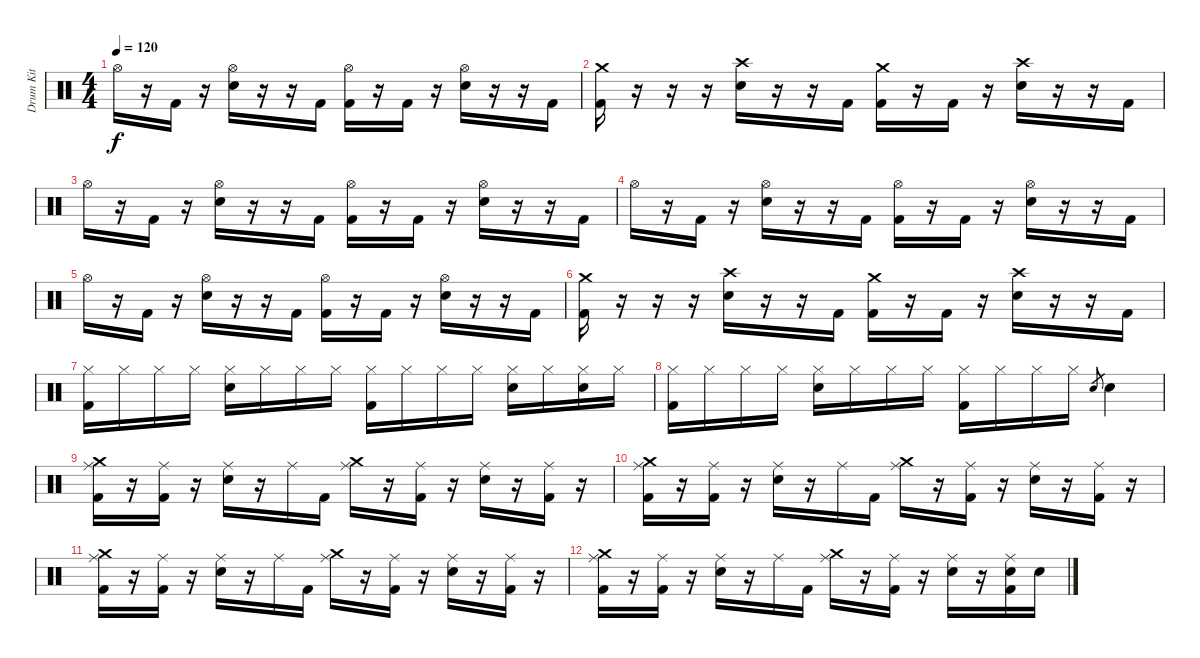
\track ("Drum Kit" "Drum Kit") {instrument percussion}
\staff {score}
\articulation defaults
\ts (4 4)
\tempo 120
\clef neutral
\ks c "Hi-Hat (open)".16{dy f}
r.16 "Kick (hit) 2".16 r.16 ("Hi-Hat (open)" "Snare (hit) 2").16 r.16 r.16 "Kick (hit) 2".16 ("Hi-Hat (open)" "Kick (hit) 2").16 r.16 "Kick (hit) 2".16 r.16 ("Hi-Hat (open)" "Snare (hit) 2").16 r.16 r.16 "Kick (hit) 2".16 |
("Crash medium (hit)" "Kick (hit) 2").16 r.16 r.16 r.16 ("Crash high (hit)" "Snare (hit) 2").16 r.16 r.16 "Kick (hit) 2".16 ("Crash medium (hit)" "Kick (hit) 2").16 r.16 "Kick (hit) 2".16 r.16 ("Crash high (hit)" "Snare (hit) 2").16 r.16 r.16 "Kick (hit) 2".16 |
"Hi-Hat (open)".16 r.16 "Kick (hit) 2".16 r.16 ("Hi-Hat (open)" "Snare (hit) 2").16 r.16 r.16 "Kick (hit) 2".16 ("Hi-Hat (open)" "Kick (hit) 2").16 r.16 "Kick (hit) 2".16 r.16 ("Hi-Hat (open)" "Snare (hit) 2").16 r.16 r.16 "Kick (hit) 2".16 |
"Hi-Hat (open)".16 r.16 "Kick (hit) 2".16 r.16 ("Hi-Hat (open)" "Snare (hit) 2").16 r.16 r.16 "Kick (hit) 2".16 ("Hi-Hat (open)" "Kick (hit) 2").16 r.16 "Kick (hit) 2".16 r.16 ("Hi-Hat (open)" "Snare (hit) 2").16 r.16 r.16 "Kick (hit) 2".16 |
"Hi-Hat (open)".16 r.16 "Kick (hit) 2".16 r.16 ("Hi-Hat (open)" "Snare (hit) 2").16 r.16 r.16 "Kick (hit) 2".16 ("Hi-Hat (open)" "Kick (hit) 2").16 r.16 "Kick (hit) 2".16 r.16 ("Hi-Hat (open)" "Snare (hit) 2").16 r.16 r.16 "Kick (hit) 2".16 |
("Crash medium (hit)" "Kick (hit) 2").16 r.16 r.16 r.16 ("Crash high (hit)" "Snare (hit) 2").16 r.16 r.16 "Kick (hit) 2".16 ("Crash medium (hit)" "Kick (hit) 2").16 r.16 "Kick (hit) 2".16 r.16 ("Crash high (hit)" "Snare (hit) 2").16 r.16 r.16 "Kick (hit) 2".16 |
("Hi-Hat (closed)" "Kick (hit) 2").16{volume 4} "Hi-Hat (closed)".16 "Hi-Hat (closed)".16 "Hi-Hat (closed)".16 ("Hi-Hat (closed)" "Snare (hit) 2").16 "Hi-Hat (closed)".16 "Hi-Hat (closed)".16 "Hi-Hat (closed)".16 ("Hi-Hat (closed)" "Kick (hit) 2").16 "Hi-Hat (closed)".16 "Hi-Hat (closed)".16 "Hi-Hat (closed)".16 ("Hi-Hat (closed)" "Snare (hit) 2").16 "Hi-Hat (closed)".16 ("Hi-Hat (closed)" "Snare (hit) 2").16 "Hi-Hat (closed)".16 |
("Hi-Hat (closed)" "Kick (hit) 2").16 "Hi-Hat (closed)".16 "Hi-Hat (closed)".16 "Hi-Hat (closed)".16 ("Hi-Hat (closed)" "Snare (hit) 2").16 "Hi-Hat (closed)".16 "Hi-Hat (closed)".16 "Hi-Hat (closed)".16 ("Hi-Hat (closed)" "Kick (hit) 2").16 "Hi-Hat (closed)".16 "Hi-Hat (closed)".16 "Hi-Hat (closed)".16 "Snare (hit) 2".8{gr} "Snare (hit) 2".4{volume 13} |
("Crash medium (hit)" "Ride (middle)" "Kick (hit) 2").16{volume 13} r.16 ("Ride (middle)" "Kick (hit) 2").16 r.16 ("Ride (middle)" "Snare (hit) 2").16 r.16 "Ride (middle)".16 "Kick (hit) 2".16 ("Crash medium (hit)" "Ride (middle)").16 r.16 ("Ride (middle)" "Kick (hit) 2").16 r.16 ("Ride (middle)" "Snare (hit) 2").16 r.16 ("Ride (middle)" "Kick (hit) 2").16 r.16 |
("Crash medium (hit)" "Ride (middle)" "Kick (hit) 2").16 r.16 ("Ride (middle)" "Kick (hit) 2").16 r.16 ("Ride (middle)" "Snare (hit) 2").16 r.16 "Ride (middle)".16 "Kick (hit) 2".16 ("Crash medium (hit)" "Ride (middle)").16 r.16 ("Ride (middle)" "Kick (hit) 2").16 r.16 ("Ride (middle)" "Snare (hit) 2").16 r.16 ("Ride (middle)" "Kick (hit) 2").16 r.16 |
("Crash medium (hit)" "Ride (middle)" "Kick (hit) 2").16 r.16 ("Ride (middle)" "Kick (hit) 2").16 r.16 ("Ride (middle)" "Snare (hit) 2").16 r.16 "Ride (middle)".16 "Kick (hit) 2".16 ("Crash medium (hit)" "Ride (middle)").16 r.16 ("Ride (middle)" "Kick (hit) 2").16 r.16 ("Ride (middle)" "Snare (hit) 2").16 r.16 ("Ride (middle)" "Kick (hit) 2").16 r.16 |
("Crash medium (hit)" "Ride (middle)" "Kick (hit) 2").16 r.16 ("Ride (middle)" "Kick (hit) 2").16 r.16 ("Ride (middle)" "Snare (hit) 2").16 r.16 "Ride (middle)".16 "Kick (hit) 2".16 ("Crash medium (hit)" "Ride (middle)").16 r.16 ("Ride (middle)" "Kick (hit) 2").16 r.16 ("Ride (middle)" "Snare (hit) 2").16 r.16 ("Ride (middle)" "Snare (hit) 2" "Kick (hit) 2").16 "Snare (hit) 2".16
